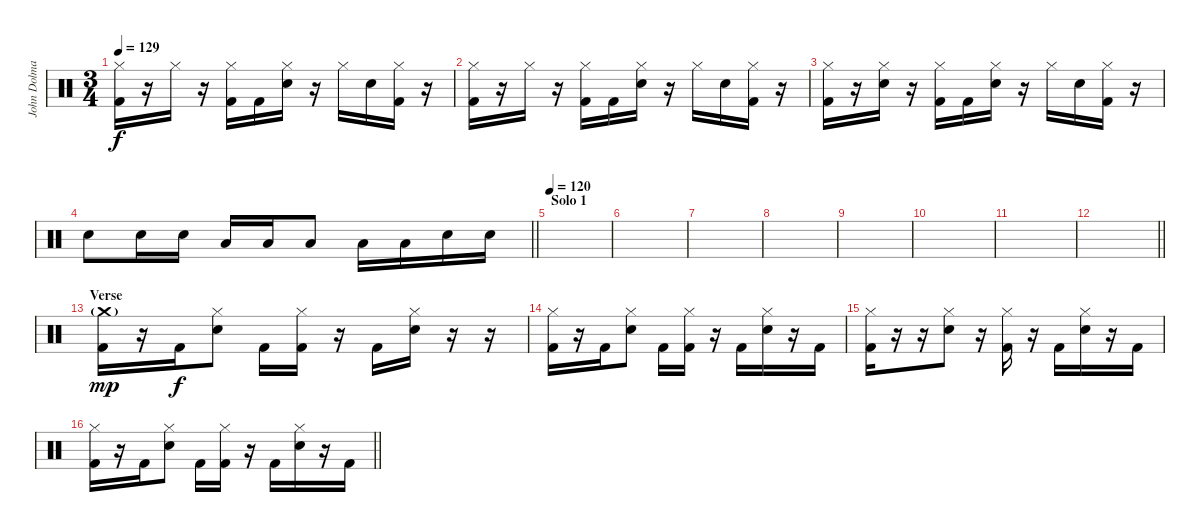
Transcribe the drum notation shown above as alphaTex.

\track ("John Dolmayan" "John Dolma") {instrument percussion}
\staff {score}
\articulation defaults
\ts (3 4)
\tempo 129
\clef neutral
\ks c
("Hi-Hat (closed)" "Kick (hit) 2").16{dy f} r.16 "Hi-Hat (closed)".16 r.16 ("Hi-Hat (closed)" "Kick (hit) 2").16 "Kick (hit) 2".16 ("Hi-Hat (closed)" "Electric Snare (hit)").16 r.16 "Hi-Hat (closed)".16 "Electric Snare (hit)".16 ("Hi-Hat (closed)" "Kick (hit) 2").16 r.16 |
("Hi-Hat (closed)" "Kick (hit) 2").16 r.16 "Hi-Hat (closed)".16 r.16 ("Hi-Hat (closed)" "Kick (hit) 2").16 "Kick (hit) 2".16 ("Hi-Hat (closed)" "Electric Snare (hit)").16 r.16 "Hi-Hat (closed)".16 "Electric Snare (hit)".16 ("Hi-Hat (closed)" "Kick (hit) 2").16 r.16 |
("Hi-Hat (closed)" "Kick (hit) 2").16 r.16 ("Hi-Hat (closed)" "Electric Snare (hit)").16 r.16 ("Hi-Hat (closed)" "Kick (hit) 2").16 "Kick (hit) 2".16 ("Hi-Hat (closed)" "Electric Snare (hit)").16 r.16 "Hi-Hat (closed)".16 "Electric Snare (hit)".16 ("Hi-Hat (closed)" "Kick (hit) 2").16 r.16 |
\barLineRight lightlight "Electric Snare (hit)".8 "Electric Snare (hit)".16 "Electric Snare (hit)".16 "Low Tom (hit)".16 "Low Tom (hit)".16 "Low Tom (hit)".8 "Low Floor Tom (hit)".16 "Low Floor Tom (hit)".16 "Electric Snare (hit)".16 "Electric Snare (hit)".16
|
\section ("" "Solo 1")
\tempo 120
|
|
|
|
|
|
|
\barLineRight lightlight
|
\section ("" "Verse")
("Crash medium (hit)"{g} "Kick (hit) 2").16{dy mp} r.16 "Kick (hit) 2".16{dy f} ("Hi-Hat (closed)" "Electric Snare (hit)").8 "Kick (hit) 2".16 ("Hi-Hat (closed)" "Kick (hit) 2").16 r.16 "Kick (hit) 2".16 ("Hi-Hat (closed)" "Electric Snare (hit)").16 r.16 r.16 |
("Hi-Hat (closed)" "Kick (hit) 2").16 r.16 "Kick (hit) 2".16 ("Hi-Hat (closed)" "Electric Snare (hit)").8 "Kick (hit) 2".16 ("Hi-Hat (closed)" "Kick (hit) 2").16 r.16 "Kick (hit) 2".16 ("Hi-Hat (closed)" "Electric Snare (hit)").16 r.16 "Kick (hit) 2".16 |
("Hi-Hat (closed)" "Kick (hit) 2").16 r.16 r.16 ("Hi-Hat (closed)" "Electric Snare (hit)").8 r.16 ("Hi-Hat (closed)" "Kick (hit) 2").16 r.16 "Kick (hit) 2".16 ("Hi-Hat (closed)" "Electric Snare (hit)").16 r.16 "Kick (hit) 2".16 |
\barLineRight lightlight
("Hi-Hat (closed)" "Kick (hit) 2").16 r.16 "Kick (hit) 2".16 ("Hi-Hat (closed)" "Electric Snare (hit)").8 "Kick (hit) 2".16 ("Hi-Hat (closed)" "Kick (hit) 2").16 r.16 "Kick (hit) 2".16 ("Hi-Hat (closed)" "Electric Snare (hit)").16 r.16 "Kick (hit) 2".16
